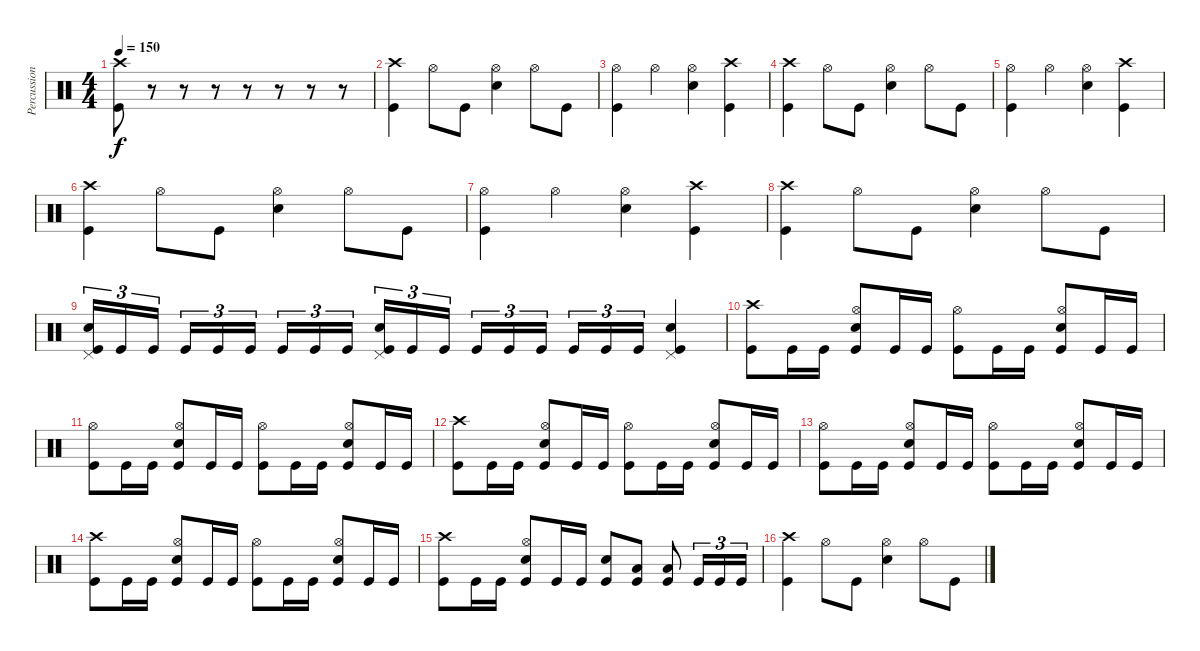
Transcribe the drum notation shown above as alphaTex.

\track ("Percussion" "Percussion") {instrument percussion}
\staff {score}
\articulation defaults
\ts (4 4)
\tempo 150
\clef neutral
\ks c
("Kick (hit)" "Crash high (hit)").8{dy f} r.8 r.8 r.8 r.8 r.8 r.8 r.8 |
("Kick (hit)" "Crash high (hit)").4 "Hi-Hat (open)".8 "Kick (hit)".8 ("Hi-Hat (open)" "Snare (hit) 2").4 "Hi-Hat (open)".8 "Kick (hit)".8 |
("Kick (hit)" "Hi-Hat (open)").4 "Hi-Hat (open)".4 ("Hi-Hat (open)" "Snare (hit) 2").4 ("Kick (hit)" "Crash high (hit)").4 |
("Kick (hit)" "Crash high (hit)").4 "Hi-Hat (open)".8 "Kick (hit)".8 ("Hi-Hat (open)" "Snare (hit) 2").4 "Hi-Hat (open)".8 "Kick (hit)".8 |
("Kick (hit)" "Hi-Hat (open)").4 "Hi-Hat (open)".4 ("Hi-Hat (open)" "Snare (hit) 2").4 ("Kick (hit)" "Crash high (hit)").4 |
("Kick (hit)" "Crash high (hit)").4 "Hi-Hat (open)".8 "Kick (hit)".8 ("Hi-Hat (open)" "Snare (hit) 2").4 "Hi-Hat (open)".8 "Kick (hit)".8 |
("Kick (hit)" "Hi-Hat (open)").4 "Hi-Hat (open)".4 ("Hi-Hat (open)" "Snare (hit) 2").4 ("Kick (hit)" "Crash high (hit)").4 |
("Kick (hit)" "Crash high (hit)").4 "Hi-Hat (open)".8 "Kick (hit)".8 ("Hi-Hat (open)" "Snare (hit) 2").4 "Hi-Hat (open)".8 "Kick (hit)".8 |
("Kick (hit)" "Snare (hit) 2" "Pedal Hi-Hat (hit)").16{tu (3 2)} "Kick (hit)".16{tu (3 2)} "Kick (hit)".16{tu (3 2) beam splitsecondary} "Kick (hit)".16{tu (3 2)} "Kick (hit)".16{tu (3 2)} "Kick (hit)".16{tu (3 2)} "Kick (hit)".16{tu (3 2)} "Kick (hit)".16{tu (3 2)} "Kick (hit)".16{tu (3 2) beam splitsecondary} ("Kick (hit)" "Snare (hit) 2" "Pedal Hi-Hat (hit)").16{tu (3 2)} "Kick (hit)".16{tu (3 2)} "Kick (hit)".16{tu (3 2)} "Kick (hit)".16{tu (3 2)} "Kick (hit)".16{tu (3 2)} "Kick (hit)".16{tu (3 2) beam splitsecondary} "Kick (hit)".16{tu (3 2)} "Kick (hit)".16{tu (3 2)} "Kick (hit)".16{tu (3 2)} ("Kick (hit)" "Snare (hit) 2" "Pedal Hi-Hat (hit)").4 |
("Kick (hit)" "Crash high (hit)").8 "Kick (hit)".16 "Kick (hit)".16 ("Kick (hit)" "Hi-Hat (open)" "Snare (hit) 2").8 "Kick (hit)".16 "Kick (hit)".16 ("Kick (hit)" "Hi-Hat (open)").8 "Kick (hit)".16 "Kick (hit)".16 ("Kick (hit)" "Hi-Hat (open)" "Snare (hit) 2").8 "Kick (hit)".16 "Kick (hit)".16 |
("Kick (hit)" "Hi-Hat (open)").8 "Kick (hit)".16 "Kick (hit)".16 ("Kick (hit)" "Hi-Hat (open)" "Snare (hit) 2").8 "Kick (hit)".16 "Kick (hit)".16 ("Kick (hit)" "Hi-Hat (open)").8 "Kick (hit)".16 "Kick (hit)".16 ("Kick (hit)" "Hi-Hat (open)" "Snare (hit) 2").8 "Kick (hit)".16 "Kick (hit)".16 |
("Kick (hit)" "Crash high (hit)").8 "Kick (hit)".16 "Kick (hit)".16 ("Kick (hit)" "Hi-Hat (open)" "Snare (hit) 2").8 "Kick (hit)".16 "Kick (hit)".16 ("Kick (hit)" "Hi-Hat (open)").8 "Kick (hit)".16 "Kick (hit)".16 ("Kick (hit)" "Hi-Hat (open)" "Snare (hit) 2").8 "Kick (hit)".16 "Kick (hit)".16 |
("Kick (hit)" "Hi-Hat (open)").8 "Kick (hit)".16 "Kick (hit)".16 ("Kick (hit)" "Hi-Hat (open)" "Snare (hit) 2").8 "Kick (hit)".16 "Kick (hit)".16 ("Kick (hit)" "Hi-Hat (open)").8 "Kick (hit)".16 "Kick (hit)".16 ("Kick (hit)" "Hi-Hat (open)" "Snare (hit) 2").8 "Kick (hit)".16 "Kick (hit)".16 |
("Kick (hit)" "Crash high (hit)").8 "Kick (hit)".16 "Kick (hit)".16 ("Kick (hit)" "Hi-Hat (open)" "Snare (hit) 2").8 "Kick (hit)".16 "Kick (hit)".16 ("Kick (hit)" "Hi-Hat (open)").8 "Kick (hit)".16 "Kick (hit)".16 ("Kick (hit)" "Hi-Hat (open)" "Snare (hit) 2").8 "Kick (hit)".16 "Kick (hit)".16 |
("Kick (hit)" "Crash high (hit)").8 "Kick (hit)".16 "Kick (hit)".16 ("Kick (hit)" "Hi-Hat (open)" "Snare (hit) 2").8 "Kick (hit)".16 "Kick (hit)".16 ("Kick (hit)" "Snare (hit) 2").8 ("Kick (hit)" "Low Tom (hit)").8 ("Kick (hit)" "Low Floor Tom (hit)").8 "Kick (hit)".16{tu (3 2)} "Kick (hit)".16{tu (3 2)} "Kick (hit)".16{tu (3 2)} |
("Kick (hit)" "Crash high (hit)").4 "Hi-Hat (open)".8 "Kick (hit)".8 ("Hi-Hat (open)" "Snare (hit) 2").4 "Hi-Hat (open)".8 "Kick (hit)".8
